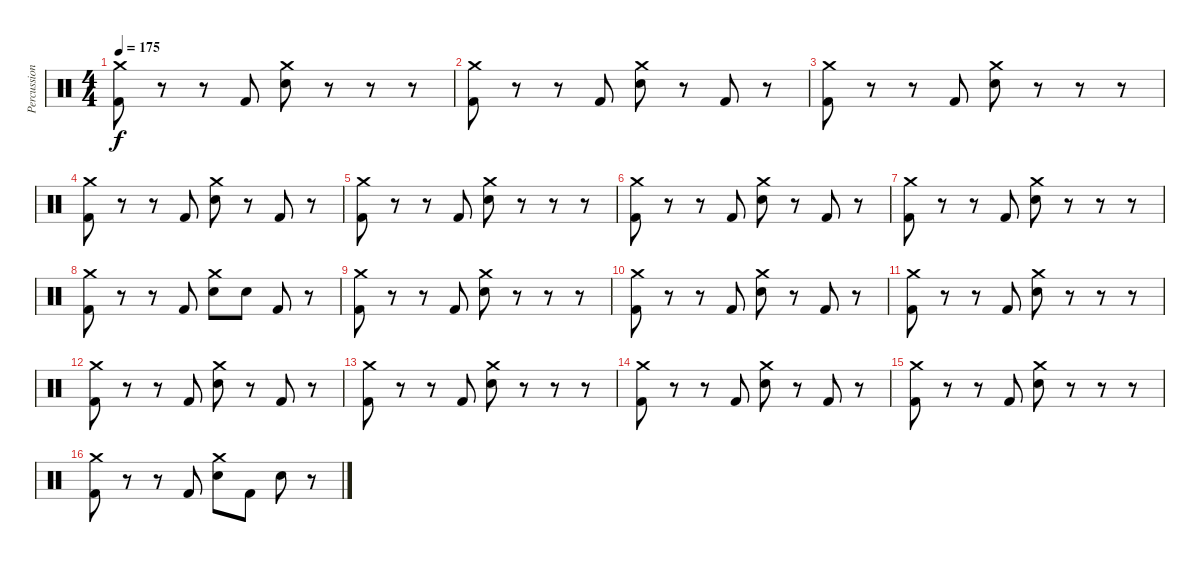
\track ("Percussions" "Percussion") {instrument percussion}
\staff {score}
\articulation defaults
\ts (4 4)
\tempo 175
\clef neutral
\ks c
("Crash medium (hit)" "Kick (hit) 2").8{dy f} r.8 r.8 "Kick (hit) 2".8 ("Crash medium (hit)" "Snare (hit) 2").8 r.8 r.8 r.8 |
("Crash medium (hit)" "Kick (hit) 2").8 r.8 r.8 "Kick (hit) 2".8 ("Crash medium (hit)" "Snare (hit) 2").8 r.8 "Kick (hit) 2".8 r.8 |
("Crash medium (hit)" "Kick (hit) 2").8 r.8 r.8 "Kick (hit) 2".8 ("Crash medium (hit)" "Snare (hit) 2").8 r.8 r.8 r.8 |
("Crash medium (hit)" "Kick (hit) 2").8 r.8 r.8 "Kick (hit) 2".8 ("Crash medium (hit)" "Snare (hit) 2").8 r.8 "Kick (hit) 2".8 r.8 |
("Crash medium (hit)" "Kick (hit) 2").8 r.8 r.8 "Kick (hit) 2".8 ("Crash medium (hit)" "Snare (hit) 2").8 r.8 r.8 r.8 |
("Crash medium (hit)" "Kick (hit) 2").8 r.8 r.8 "Kick (hit) 2".8 ("Crash medium (hit)" "Snare (hit) 2").8 r.8 "Kick (hit) 2".8 r.8 |
("Crash medium (hit)" "Kick (hit) 2").8 r.8 r.8 "Kick (hit) 2".8 ("Crash medium (hit)" "Snare (hit) 2").8 r.8 r.8 r.8 |
("Crash medium (hit)" "Kick (hit) 2").8 r.8 r.8 "Kick (hit) 2".8 ("Crash medium (hit)" "Snare (hit) 2").8 "Snare (hit) 2".8 "Kick (hit) 2".8 r.8 |
("Crash medium (hit)" "Kick (hit) 2").8 r.8 r.8 "Kick (hit) 2".8 ("Crash medium (hit)" "Snare (hit) 2").8 r.8 r.8 r.8 |
("Crash medium (hit)" "Kick (hit) 2").8 r.8 r.8 "Kick (hit) 2".8 ("Crash medium (hit)" "Snare (hit) 2").8 r.8 "Kick (hit) 2".8 r.8 |
("Crash medium (hit)" "Kick (hit) 2").8 r.8 r.8 "Kick (hit) 2".8 ("Crash medium (hit)" "Snare (hit) 2").8 r.8 r.8 r.8 |
("Crash medium (hit)" "Kick (hit) 2").8 r.8 r.8 "Kick (hit) 2".8 ("Crash medium (hit)" "Snare (hit) 2").8 r.8 "Kick (hit) 2".8 r.8 |
("Crash medium (hit)" "Kick (hit) 2").8 r.8 r.8 "Kick (hit) 2".8 ("Crash medium (hit)" "Snare (hit) 2").8 r.8 r.8 r.8 |
("Crash medium (hit)" "Kick (hit) 2").8 r.8 r.8 "Kick (hit) 2".8 ("Crash medium (hit)" "Snare (hit) 2").8 r.8 "Kick (hit) 2".8 r.8 |
("Crash medium (hit)" "Kick (hit) 2").8 r.8 r.8 "Kick (hit) 2".8 ("Crash medium (hit)" "Snare (hit) 2").8 r.8 r.8 r.8 |
("Crash medium (hit)" "Kick (hit) 2").8 r.8 r.8 "Kick (hit) 2".8 ("Crash medium (hit)" "Snare (hit) 2").8 "Kick (hit) 2".8 "Snare (hit) 2".8 r.8
